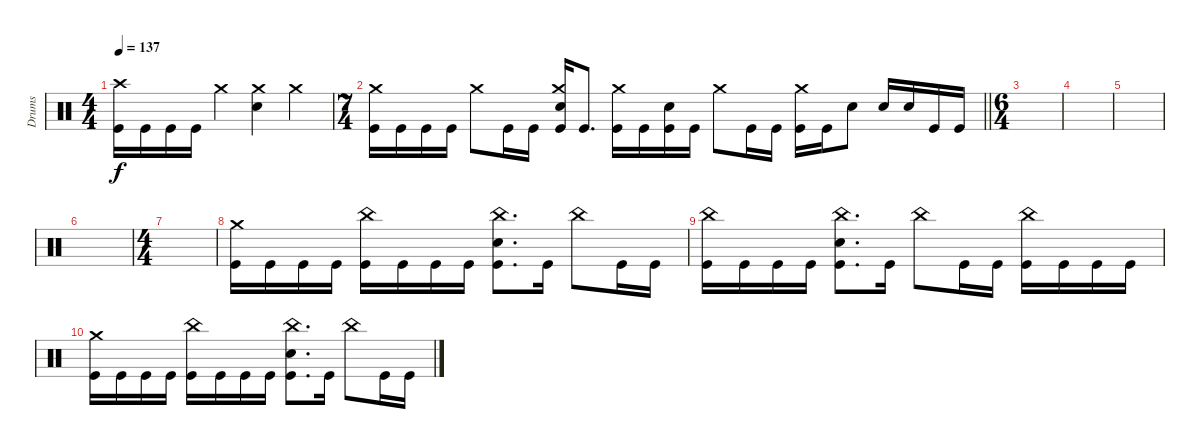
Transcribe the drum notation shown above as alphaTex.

\track ("Drums" "Drums") {instrument percussion}
\staff
\articulation defaults
\ts (4 4)
\tempo 137
\clef neutral
\ks c
("Crash high (hit)" "Kick (hit)").16{dy f} "Kick (hit)".16 "Kick (hit)".16 "Kick (hit)".16 "Crash medium (hit)".4 ("Crash medium (hit)" "Electric Snare (hit)").4 "Crash medium (hit)".4 |
\ts (7 4)
\barLineRight lightlight
("Crash medium (hit)" "Kick (hit)").16 "Kick (hit)".16 "Kick (hit)".16 "Kick (hit)".16 "Crash medium (hit)".8 "Kick (hit)".16 "Kick (hit)".16 ("Crash medium (hit)" "Electric Snare (hit)" "Kick (hit)").16 "Kick (hit)".8{d} ("Crash medium (hit)" "Kick (hit)").16 "Kick (hit)".16 ("Electric Snare (hit)" "Kick (hit)").16 "Kick (hit)".16 "Crash medium (hit)".8 "Kick (hit)".16 "Kick (hit)".16 ("Crash medium (hit)" "Kick (hit)").16 "Kick (hit)".16 "Electric Snare (hit)".8 "Electric Snare (hit)".16 "Electric Snare (hit)".16 "Kick (hit)".16 "Kick (hit)".16 |
\ts (6 4)
|
|
|
|
\ts (4 4)
|
("Crash medium (hit)" "Kick (hit)").16 "Kick (hit)".16 "Kick (hit)".16 "Kick (hit)".16 ("China (hit)" "Kick (hit)").16 "Kick (hit)".16 "Kick (hit)".16 "Kick (hit)".16 ("China (hit)" "Electric Snare (hit)" "Kick (hit)").8{d} "Kick (hit)".16 "China (hit)".8 "Kick (hit)".16 "Kick (hit)".16 |
("China (hit)" "Kick (hit)").16 "Kick (hit)".16 "Kick (hit)".16 "Kick (hit)".16 ("China (hit)" "Electric Snare (hit)" "Kick (hit)").8{d} "Kick (hit)".16 "China (hit)".8 "Kick (hit)".16 "Kick (hit)".16 ("China (hit)" "Kick (hit)").16 "Kick (hit)".16 "Kick (hit)".16 "Kick (hit)".16 |
("Crash medium (hit)" "Kick (hit)").16 "Kick (hit)".16 "Kick (hit)".16 "Kick (hit)".16 ("China (hit)" "Kick (hit)").16 "Kick (hit)".16 "Kick (hit)".16 "Kick (hit)".16 ("China (hit)" "Electric Snare (hit)" "Kick (hit)").8{d} "Kick (hit)".16 "China (hit)".8 "Kick (hit)".16 "Kick (hit)".16
